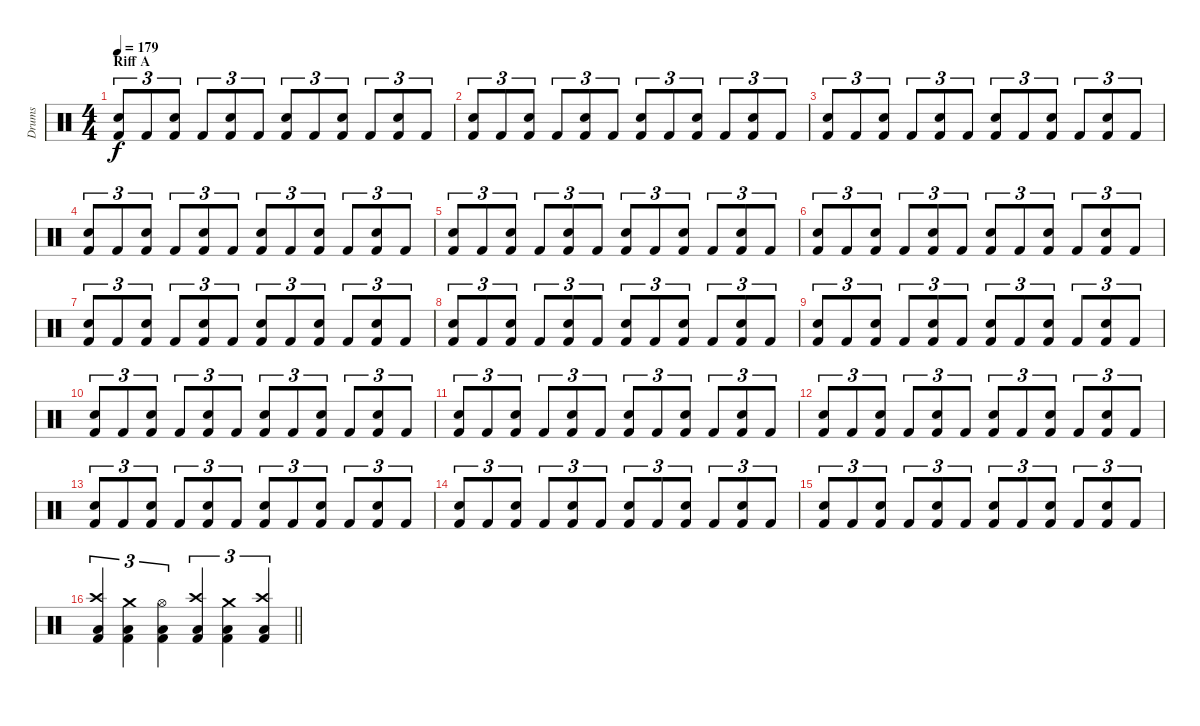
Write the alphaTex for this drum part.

\track ("Drums" "Drums") {instrument percussion}
\staff {score}
\articulation defaults
\ts (4 4)
\section ("" "Riff A")
\tempo 179
\clef neutral
\ks c
("Electric Snare (hit)" "Kick (hit) 2").8{tu (3 2) dy f} "Kick (hit) 2".8{tu (3 2)} ("Electric Snare (hit)" "Kick (hit) 2").8{tu (3 2)} "Kick (hit) 2".8{tu (3 2)} ("Electric Snare (hit)" "Kick (hit) 2").8{tu (3 2)} "Kick (hit) 2".8{tu (3 2)} ("Electric Snare (hit)" "Kick (hit) 2").8{tu (3 2)} "Kick (hit) 2".8{tu (3 2)} ("Electric Snare (hit)" "Kick (hit) 2").8{tu (3 2)} "Kick (hit) 2".8{tu (3 2)} ("Electric Snare (hit)" "Kick (hit) 2").8{tu (3 2)} "Kick (hit) 2".8{tu (3 2)} |
("Electric Snare (hit)" "Kick (hit) 2").8{tu (3 2)} "Kick (hit) 2".8{tu (3 2)} ("Electric Snare (hit)" "Kick (hit) 2").8{tu (3 2)} "Kick (hit) 2".8{tu (3 2)} ("Electric Snare (hit)" "Kick (hit) 2").8{tu (3 2)} "Kick (hit) 2".8{tu (3 2)} ("Electric Snare (hit)" "Kick (hit) 2").8{tu (3 2)} "Kick (hit) 2".8{tu (3 2)} ("Electric Snare (hit)" "Kick (hit) 2").8{tu (3 2)} "Kick (hit) 2".8{tu (3 2)} ("Electric Snare (hit)" "Kick (hit) 2").8{tu (3 2)} "Kick (hit) 2".8{tu (3 2)} |
("Electric Snare (hit)" "Kick (hit) 2").8{tu (3 2)} "Kick (hit) 2".8{tu (3 2)} ("Electric Snare (hit)" "Kick (hit) 2").8{tu (3 2)} "Kick (hit) 2".8{tu (3 2)} ("Electric Snare (hit)" "Kick (hit) 2").8{tu (3 2)} "Kick (hit) 2".8{tu (3 2)} ("Electric Snare (hit)" "Kick (hit) 2").8{tu (3 2)} "Kick (hit) 2".8{tu (3 2)} ("Electric Snare (hit)" "Kick (hit) 2").8{tu (3 2)} "Kick (hit) 2".8{tu (3 2)} ("Electric Snare (hit)" "Kick (hit) 2").8{tu (3 2)} "Kick (hit) 2".8{tu (3 2)} |
("Electric Snare (hit)" "Kick (hit) 2").8{tu (3 2)} "Kick (hit) 2".8{tu (3 2)} ("Electric Snare (hit)" "Kick (hit) 2").8{tu (3 2)} "Kick (hit) 2".8{tu (3 2)} ("Electric Snare (hit)" "Kick (hit) 2").8{tu (3 2)} "Kick (hit) 2".8{tu (3 2)} ("Electric Snare (hit)" "Kick (hit) 2").8{tu (3 2)} "Kick (hit) 2".8{tu (3 2)} ("Electric Snare (hit)" "Kick (hit) 2").8{tu (3 2)} "Kick (hit) 2".8{tu (3 2)} ("Electric Snare (hit)" "Kick (hit) 2").8{tu (3 2)} "Kick (hit) 2".8{tu (3 2)} |
("Electric Snare (hit)" "Kick (hit) 2").8{tu (3 2)} "Kick (hit) 2".8{tu (3 2)} ("Electric Snare (hit)" "Kick (hit) 2").8{tu (3 2)} "Kick (hit) 2".8{tu (3 2)} ("Electric Snare (hit)" "Kick (hit) 2").8{tu (3 2)} "Kick (hit) 2".8{tu (3 2)} ("Electric Snare (hit)" "Kick (hit) 2").8{tu (3 2)} "Kick (hit) 2".8{tu (3 2)} ("Electric Snare (hit)" "Kick (hit) 2").8{tu (3 2)} "Kick (hit) 2".8{tu (3 2)} ("Electric Snare (hit)" "Kick (hit) 2").8{tu (3 2)} "Kick (hit) 2".8{tu (3 2)} |
("Electric Snare (hit)" "Kick (hit) 2").8{tu (3 2)} "Kick (hit) 2".8{tu (3 2)} ("Electric Snare (hit)" "Kick (hit) 2").8{tu (3 2)} "Kick (hit) 2".8{tu (3 2)} ("Electric Snare (hit)" "Kick (hit) 2").8{tu (3 2)} "Kick (hit) 2".8{tu (3 2)} ("Electric Snare (hit)" "Kick (hit) 2").8{tu (3 2)} "Kick (hit) 2".8{tu (3 2)} ("Electric Snare (hit)" "Kick (hit) 2").8{tu (3 2)} "Kick (hit) 2".8{tu (3 2)} ("Electric Snare (hit)" "Kick (hit) 2").8{tu (3 2)} "Kick (hit) 2".8{tu (3 2)} |
("Electric Snare (hit)" "Kick (hit) 2").8{tu (3 2)} "Kick (hit) 2".8{tu (3 2)} ("Electric Snare (hit)" "Kick (hit) 2").8{tu (3 2)} "Kick (hit) 2".8{tu (3 2)} ("Electric Snare (hit)" "Kick (hit) 2").8{tu (3 2)} "Kick (hit) 2".8{tu (3 2)} ("Electric Snare (hit)" "Kick (hit) 2").8{tu (3 2)} "Kick (hit) 2".8{tu (3 2)} ("Electric Snare (hit)" "Kick (hit) 2").8{tu (3 2)} "Kick (hit) 2".8{tu (3 2)} ("Electric Snare (hit)" "Kick (hit) 2").8{tu (3 2)} "Kick (hit) 2".8{tu (3 2)} |
("Electric Snare (hit)" "Kick (hit) 2").8{tu (3 2)} "Kick (hit) 2".8{tu (3 2)} ("Electric Snare (hit)" "Kick (hit) 2").8{tu (3 2)} "Kick (hit) 2".8{tu (3 2)} ("Electric Snare (hit)" "Kick (hit) 2").8{tu (3 2)} "Kick (hit) 2".8{tu (3 2)} ("Electric Snare (hit)" "Kick (hit) 2").8{tu (3 2)} "Kick (hit) 2".8{tu (3 2)} ("Electric Snare (hit)" "Kick (hit) 2").8{tu (3 2)} "Kick (hit) 2".8{tu (3 2)} ("Electric Snare (hit)" "Kick (hit) 2").8{tu (3 2)} "Kick (hit) 2".8{tu (3 2)} |
("Electric Snare (hit)" "Kick (hit) 2").8{tu (3 2)} "Kick (hit) 2".8{tu (3 2)} ("Electric Snare (hit)" "Kick (hit) 2").8{tu (3 2)} "Kick (hit) 2".8{tu (3 2)} ("Electric Snare (hit)" "Kick (hit) 2").8{tu (3 2)} "Kick (hit) 2".8{tu (3 2)} ("Electric Snare (hit)" "Kick (hit) 2").8{tu (3 2)} "Kick (hit) 2".8{tu (3 2)} ("Electric Snare (hit)" "Kick (hit) 2").8{tu (3 2)} "Kick (hit) 2".8{tu (3 2)} ("Electric Snare (hit)" "Kick (hit) 2").8{tu (3 2)} "Kick (hit) 2".8{tu (3 2)} |
("Electric Snare (hit)" "Kick (hit) 2").8{tu (3 2)} "Kick (hit) 2".8{tu (3 2)} ("Electric Snare (hit)" "Kick (hit) 2").8{tu (3 2)} "Kick (hit) 2".8{tu (3 2)} ("Electric Snare (hit)" "Kick (hit) 2").8{tu (3 2)} "Kick (hit) 2".8{tu (3 2)} ("Electric Snare (hit)" "Kick (hit) 2").8{tu (3 2)} "Kick (hit) 2".8{tu (3 2)} ("Electric Snare (hit)" "Kick (hit) 2").8{tu (3 2)} "Kick (hit) 2".8{tu (3 2)} ("Electric Snare (hit)" "Kick (hit) 2").8{tu (3 2)} "Kick (hit) 2".8{tu (3 2)} |
("Electric Snare (hit)" "Kick (hit) 2").8{tu (3 2)} "Kick (hit) 2".8{tu (3 2)} ("Electric Snare (hit)" "Kick (hit) 2").8{tu (3 2)} "Kick (hit) 2".8{tu (3 2)} ("Electric Snare (hit)" "Kick (hit) 2").8{tu (3 2)} "Kick (hit) 2".8{tu (3 2)} ("Electric Snare (hit)" "Kick (hit) 2").8{tu (3 2)} "Kick (hit) 2".8{tu (3 2)} ("Electric Snare (hit)" "Kick (hit) 2").8{tu (3 2)} "Kick (hit) 2".8{tu (3 2)} ("Electric Snare (hit)" "Kick (hit) 2").8{tu (3 2)} "Kick (hit) 2".8{tu (3 2)} |
("Electric Snare (hit)" "Kick (hit) 2").8{tu (3 2)} "Kick (hit) 2".8{tu (3 2)} ("Electric Snare (hit)" "Kick (hit) 2").8{tu (3 2)} "Kick (hit) 2".8{tu (3 2)} ("Electric Snare (hit)" "Kick (hit) 2").8{tu (3 2)} "Kick (hit) 2".8{tu (3 2)} ("Electric Snare (hit)" "Kick (hit) 2").8{tu (3 2)} "Kick (hit) 2".8{tu (3 2)} ("Electric Snare (hit)" "Kick (hit) 2").8{tu (3 2)} "Kick (hit) 2".8{tu (3 2)} ("Electric Snare (hit)" "Kick (hit) 2").8{tu (3 2)} "Kick (hit) 2".8{tu (3 2)} |
("Electric Snare (hit)" "Kick (hit) 2").8{tu (3 2)} "Kick (hit) 2".8{tu (3 2)} ("Electric Snare (hit)" "Kick (hit) 2").8{tu (3 2)} "Kick (hit) 2".8{tu (3 2)} ("Electric Snare (hit)" "Kick (hit) 2").8{tu (3 2)} "Kick (hit) 2".8{tu (3 2)} ("Electric Snare (hit)" "Kick (hit) 2").8{tu (3 2)} "Kick (hit) 2".8{tu (3 2)} ("Electric Snare (hit)" "Kick (hit) 2").8{tu (3 2)} "Kick (hit) 2".8{tu (3 2)} ("Electric Snare (hit)" "Kick (hit) 2").8{tu (3 2)} "Kick (hit) 2".8{tu (3 2)} |
("Electric Snare (hit)" "Kick (hit) 2").8{tu (3 2)} "Kick (hit) 2".8{tu (3 2)} ("Electric Snare (hit)" "Kick (hit) 2").8{tu (3 2)} "Kick (hit) 2".8{tu (3 2)} ("Electric Snare (hit)" "Kick (hit) 2").8{tu (3 2)} "Kick (hit) 2".8{tu (3 2)} ("Electric Snare (hit)" "Kick (hit) 2").8{tu (3 2)} "Kick (hit) 2".8{tu (3 2)} ("Electric Snare (hit)" "Kick (hit) 2").8{tu (3 2)} "Kick (hit) 2".8{tu (3 2)} ("Electric Snare (hit)" "Kick (hit) 2").8{tu (3 2)} "Kick (hit) 2".8{tu (3 2)} |
("Electric Snare (hit)" "Kick (hit) 2").8{tu (3 2)} "Kick (hit) 2".8{tu (3 2)} ("Electric Snare (hit)" "Kick (hit) 2").8{tu (3 2)} "Kick (hit) 2".8{tu (3 2)} ("Electric Snare (hit)" "Kick (hit) 2").8{tu (3 2)} "Kick (hit) 2".8{tu (3 2)} ("Electric Snare (hit)" "Kick (hit) 2").8{tu (3 2)} "Kick (hit) 2".8{tu (3 2)} ("Electric Snare (hit)" "Kick (hit) 2").8{tu (3 2)} "Kick (hit) 2".8{tu (3 2)} ("Electric Snare (hit)" "Kick (hit) 2").8{tu (3 2)} "Kick (hit) 2".8{tu (3 2)} |
\barLineRight lightlight
("Crash high (hit)" "Low Floor Tom (hit)" "Kick (hit) 2").4{tu (3 2)} ("Crash medium (hit)" "Low Floor Tom (hit)" "Kick (hit) 2").4{tu (3 2)} ("Hi-Hat (open)" "Low Floor Tom (hit)" "Kick (hit) 2").4{tu (3 2)} ("Crash high (hit)" "Low Floor Tom (hit)" "Kick (hit) 2").4{tu (3 2)} ("Crash medium (hit)" "Low Floor Tom (hit)" "Kick (hit) 2").4{tu (3 2)} ("Crash high (hit)" "Low Floor Tom (hit)" "Kick (hit) 2").4{tu (3 2)}
